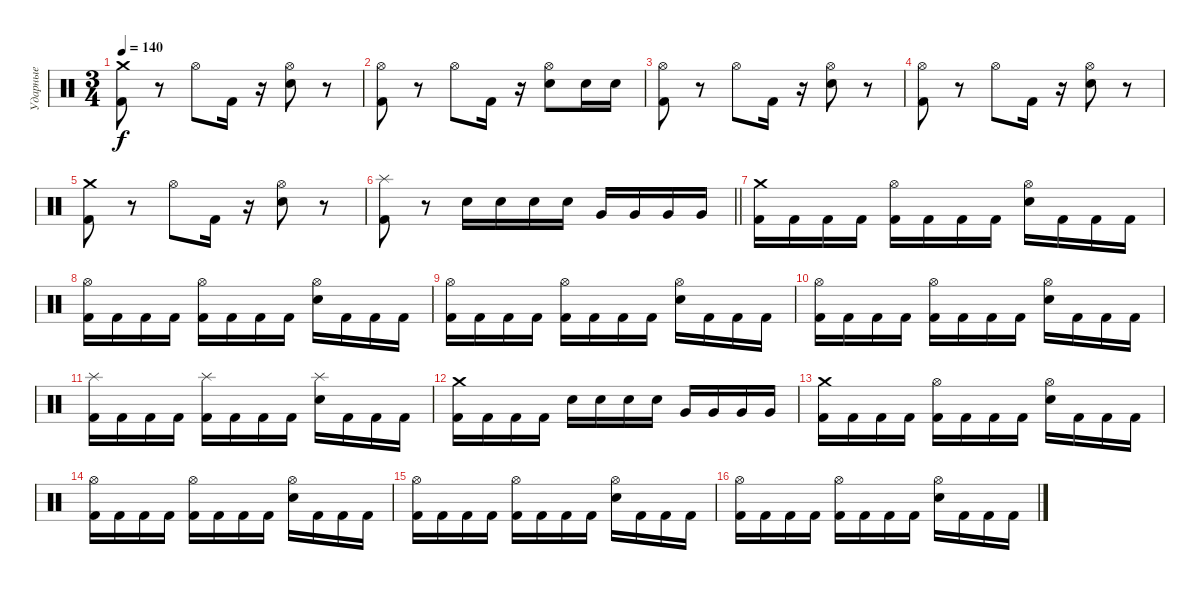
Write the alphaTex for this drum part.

\track ("Ударные" "Ударные") {instrument percussion}
\staff {score}
\articulation defaults
\ts (3 4)
\tempo 140
\clef neutral
\ks c
("Kick (hit) 2" "Crash medium (hit)").8{dy f} r.8 "Hi-Hat (open)".8 "Kick (hit) 2".16 r.16 ("Electric Snare (hit)" "Hi-Hat (open)").8 r.8 |
("Kick (hit) 2" "Hi-Hat (open)").8 r.8 "Hi-Hat (open)".8 "Kick (hit) 2".16 r.16 ("Electric Snare (hit)" "Hi-Hat (open)").8 "Electric Snare (hit)".16 "Electric Snare (hit)".16 |
("Kick (hit) 2" "Hi-Hat (open)").8 r.8 "Hi-Hat (open)".8 "Kick (hit) 2".16 r.16 ("Electric Snare (hit)" "Hi-Hat (open)").8 r.8 |
("Kick (hit) 2" "Hi-Hat (open)").8 r.8 "Hi-Hat (open)".8 "Kick (hit) 2".16 r.16 ("Electric Snare (hit)" "Hi-Hat (open)").8 r.8 |
("Kick (hit) 2" "Crash medium (hit)").8 r.8 "Hi-Hat (open)".8 "Kick (hit) 2".16 r.16 ("Electric Snare (hit)" "Hi-Hat (open)").8 r.8 |
\barLineRight lightlight
("Kick (hit) 2" "Splash (hit)").8 r.8 "Electric Snare (hit)".16 "Electric Snare (hit)".16 "Electric Snare (hit)".16 "Electric Snare (hit)".16 "Very Low Tom (hit)".16 "Very Low Tom (hit)".16 "Very Low Tom (hit)".16 "Very Low Tom (hit)".16 |
("Kick (hit) 2" "Crash medium (hit)").16 "Kick (hit) 2".16 "Kick (hit) 2".16 "Kick (hit) 2".16 ("Kick (hit) 2" "Hi-Hat (open)").16 "Kick (hit) 2".16 "Kick (hit) 2".16 "Kick (hit) 2".16 ("Electric Snare (hit)" "Hi-Hat (open)").16 "Kick (hit) 2".16 "Kick (hit) 2".16 "Kick (hit) 2".16 |
("Kick (hit) 2" "Hi-Hat (open)").16 "Kick (hit) 2".16 "Kick (hit) 2".16 "Kick (hit) 2".16 ("Kick (hit) 2" "Hi-Hat (open)").16 "Kick (hit) 2".16 "Kick (hit) 2".16 "Kick (hit) 2".16 ("Electric Snare (hit)" "Hi-Hat (open)").16 "Kick (hit) 2".16 "Kick (hit) 2".16 "Kick (hit) 2".16 |
("Kick (hit) 2" "Hi-Hat (open)").16 "Kick (hit) 2".16 "Kick (hit) 2".16 "Kick (hit) 2".16 ("Kick (hit) 2" "Hi-Hat (open)").16 "Kick (hit) 2".16 "Kick (hit) 2".16 "Kick (hit) 2".16 ("Electric Snare (hit)" "Hi-Hat (open)").16 "Kick (hit) 2".16 "Kick (hit) 2".16 "Kick (hit) 2".16 |
("Kick (hit) 2" "Hi-Hat (open)").16 "Kick (hit) 2".16 "Kick (hit) 2".16 "Kick (hit) 2".16 ("Kick (hit) 2" "Hi-Hat (open)").16 "Kick (hit) 2".16 "Kick (hit) 2".16 "Kick (hit) 2".16 ("Electric Snare (hit)" "Hi-Hat (open)").16 "Kick (hit) 2".16 "Kick (hit) 2".16 "Kick (hit) 2".16 |
("Kick (hit) 2" "Splash (hit)").16 "Kick (hit) 2".16 "Kick (hit) 2".16 "Kick (hit) 2".16 ("Kick (hit) 2" "Splash (hit)").16 "Kick (hit) 2".16 "Kick (hit) 2".16 "Kick (hit) 2".16 ("Electric Snare (hit)" "Splash (hit)").16 "Kick (hit) 2".16 "Kick (hit) 2".16 "Kick (hit) 2".16 |
("Kick (hit) 2" "Crash medium (hit)").16 "Kick (hit) 2".16 "Kick (hit) 2".16 "Kick (hit) 2".16 "Electric Snare (hit)".16 "Electric Snare (hit)".16 "Electric Snare (hit)".16 "Electric Snare (hit)".16 "Very Low Tom (hit)".16 "Very Low Tom (hit)".16 "Very Low Tom (hit)".16 "Very Low Tom (hit)".16 |
("Kick (hit) 2" "Crash medium (hit)").16 "Kick (hit) 2".16 "Kick (hit) 2".16 "Kick (hit) 2".16 ("Kick (hit) 2" "Hi-Hat (open)").16 "Kick (hit) 2".16 "Kick (hit) 2".16 "Kick (hit) 2".16 ("Electric Snare (hit)" "Hi-Hat (open)").16 "Kick (hit) 2".16 "Kick (hit) 2".16 "Kick (hit) 2".16 |
("Kick (hit) 2" "Hi-Hat (open)").16 "Kick (hit) 2".16 "Kick (hit) 2".16 "Kick (hit) 2".16 ("Kick (hit) 2" "Hi-Hat (open)").16 "Kick (hit) 2".16 "Kick (hit) 2".16 "Kick (hit) 2".16 ("Electric Snare (hit)" "Hi-Hat (open)").16 "Kick (hit) 2".16 "Kick (hit) 2".16 "Kick (hit) 2".16 |
("Kick (hit) 2" "Hi-Hat (open)").16 "Kick (hit) 2".16 "Kick (hit) 2".16 "Kick (hit) 2".16 ("Kick (hit) 2" "Hi-Hat (open)").16 "Kick (hit) 2".16 "Kick (hit) 2".16 "Kick (hit) 2".16 ("Electric Snare (hit)" "Hi-Hat (open)").16 "Kick (hit) 2".16 "Kick (hit) 2".16 "Kick (hit) 2".16 |
("Kick (hit) 2" "Hi-Hat (open)").16 "Kick (hit) 2".16 "Kick (hit) 2".16 "Kick (hit) 2".16 ("Kick (hit) 2" "Hi-Hat (open)").16 "Kick (hit) 2".16 "Kick (hit) 2".16 "Kick (hit) 2".16 ("Electric Snare (hit)" "Hi-Hat (open)").16 "Kick (hit) 2".16 "Kick (hit) 2".16 "Kick (hit) 2".16
